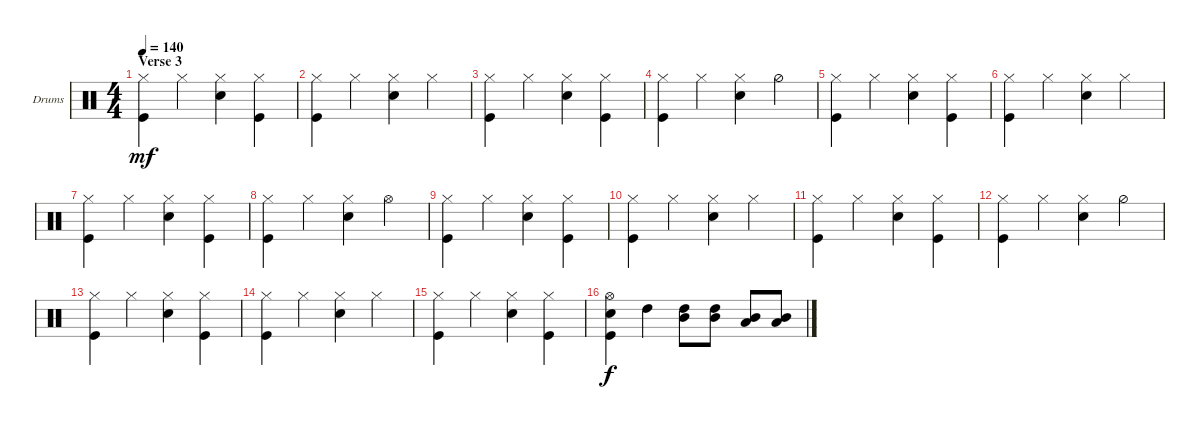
\bracketExtendMode groupsimilarinstruments
\firstSystemTrackNameOrientation horizontal
\otherSystemsTrackNameOrientation horizontal
\track ("Drumkit (Ray Cooper)" "Drums") {instrument percussion}
\staff {score}
\articulation defaults
\ts (4 4)
\section ("" "Verse 3")
\tempo 140
\clef neutral
\scale
1.07945
\ks c
("Kick (hit)" "Hi-Hat (closed)").4{dy mf} "Hi-Hat (closed)".4 ("Hi-Hat (closed)" "Snare (hit) 2").4 ("Hi-Hat (closed)" "Kick (hit)").4 |
\scale
0.973518 ("Hi-Hat (closed)" "Kick (hit)").4 "Hi-Hat (closed)".4 ("Hi-Hat (closed)" "Snare (hit) 2").4 "Hi-Hat (closed)".4 |
\scale
0.973518 ("Kick (hit)" "Hi-Hat (closed)").4 "Hi-Hat (closed)".4 ("Hi-Hat (closed)" "Snare (hit) 2").4 ("Hi-Hat (closed)" "Kick (hit)").4 |
\scale
0.973518 ("Hi-Hat (closed)" "Kick (hit)").4 "Hi-Hat (closed)".4 ("Hi-Hat (closed)" "Snare (hit) 2").4 "Hi-Hat (half)".4 |
\scale
1.07945 ("Kick (hit)" "Hi-Hat (closed)").4 "Hi-Hat (closed)".4 ("Hi-Hat (closed)" "Snare (hit) 2").4 ("Hi-Hat (closed)" "Kick (hit)").4 |
\scale
0.973518 ("Hi-Hat (closed)" "Kick (hit)").4 "Hi-Hat (closed)".4 ("Hi-Hat (closed)" "Snare (hit) 2").4 "Hi-Hat (closed)".4 |
\scale
0.973518 ("Kick (hit)" "Hi-Hat (closed)").4 "Hi-Hat (closed)".4 ("Hi-Hat (closed)" "Snare (hit) 2").4 ("Hi-Hat (closed)" "Kick (hit)").4 |
\scale
0.973518 ("Hi-Hat (closed)" "Kick (hit)").4 "Hi-Hat (closed)".4 ("Hi-Hat (closed)" "Snare (hit) 2").4 "Hi-Hat (open)".4 |
\scale
1.07945 ("Kick (hit)" "Hi-Hat (closed)").4 "Hi-Hat (closed)".4 ("Hi-Hat (closed)" "Snare (hit) 2").4 ("Hi-Hat (closed)" "Kick (hit)").4 |
\scale
0.973518 ("Hi-Hat (closed)" "Kick (hit)").4 "Hi-Hat (closed)".4 ("Hi-Hat (closed)" "Snare (hit) 2").4 "Hi-Hat (closed)".4 |
\scale
0.973518 ("Kick (hit)" "Hi-Hat (closed)").4 "Hi-Hat (closed)".4 ("Hi-Hat (closed)" "Snare (hit) 2").4 ("Hi-Hat (closed)" "Kick (hit)").4 |
\scale
0.973518 ("Hi-Hat (closed)" "Kick (hit)").4 "Hi-Hat (closed)".4 ("Hi-Hat (closed)" "Snare (hit) 2").4 "Hi-Hat (half)".4 |
\scale
1.07945 ("Kick (hit)" "Hi-Hat (closed)").4 "Hi-Hat (closed)".4 ("Hi-Hat (closed)" "Snare (hit) 2").4 ("Hi-Hat (closed)" "Kick (hit)").4 |
\scale
0.973518 ("Hi-Hat (closed)" "Kick (hit)").4 "Hi-Hat (closed)".4 ("Hi-Hat (closed)" "Snare (hit) 2").4 "Hi-Hat (closed)".4 |
\scale
0.973518 ("Kick (hit)" "Hi-Hat (closed)").4 "Hi-Hat (closed)".4 ("Hi-Hat (closed)" "Snare (hit) 2").4 ("Hi-Hat (closed)" "Kick (hit)").4 |
\scale
0.973518 ("Hi-Hat (open)" "Kick (hit)" "Snare (hit) 2").4{dy f} "High Tom (hit)".4 ("High Tom (hit)" "Mid Tom (hit)").8 ("High Tom (hit)" "Mid Tom (hit)").8 ("Mid Tom (hit)" "Low Tom (hit)").8 ("Mid Tom (hit)" "Low Tom (hit)").8
